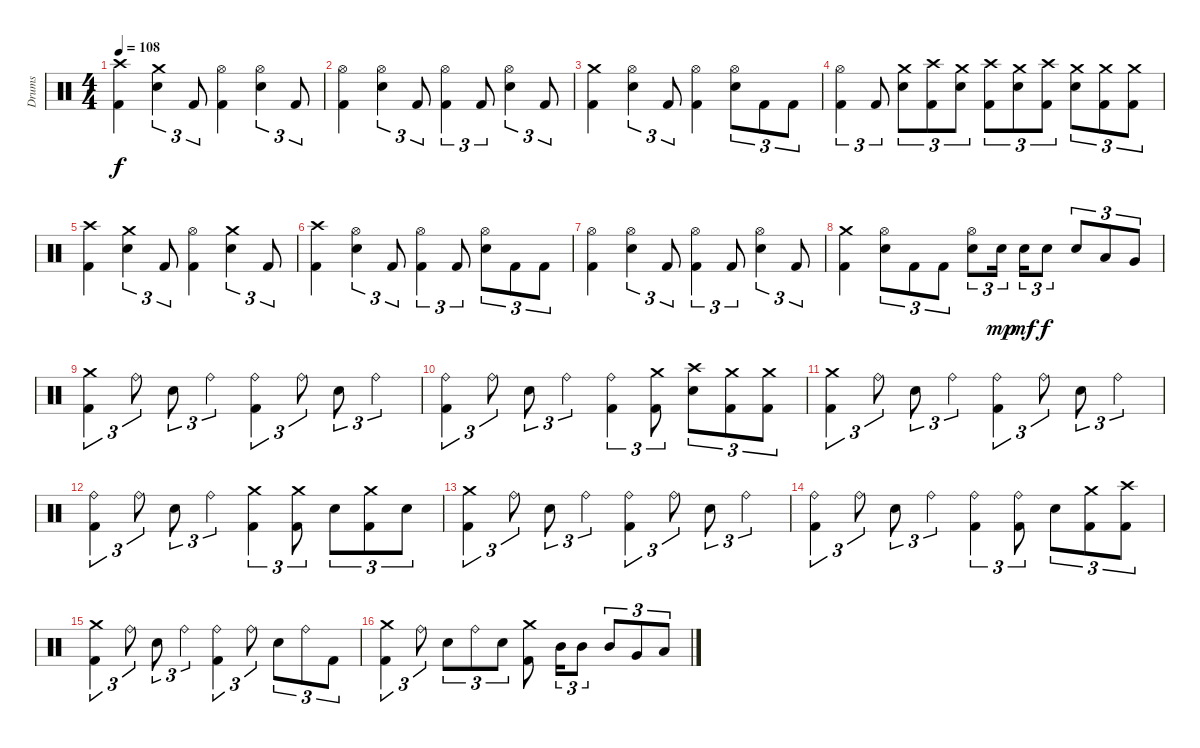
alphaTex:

\track ("Drums" "Drums") {instrument percussion}
\staff {score}
\articulation defaults
\ts (4 4)
\tempo 108
\clef neutral
\ks c
("Crash high (hit)" "Kick (hit) 2").4{dy f} ("Crash medium (hit)" "Electric Snare (hit)").4{tu (3 2)} "Kick (hit) 2".8{tu (3 2)} ("Hi-Hat (open)" "Kick (hit) 2").4 ("Hi-Hat (open)" "Electric Snare (hit)").4{tu (3 2)} "Kick (hit) 2".8{tu (3 2)} |
("Hi-Hat (open)" "Kick (hit) 2").4 ("Hi-Hat (open)" "Electric Snare (hit)").4{tu (3 2)} "Kick (hit) 2".8{tu (3 2)} ("Hi-Hat (open)" "Kick (hit) 2").4{tu (3 2)} "Kick (hit) 2".8{tu (3 2)} ("Hi-Hat (open)" "Electric Snare (hit)").4{tu (3 2)} "Kick (hit) 2".8{tu (3 2)} |
("Crash medium (hit)" "Kick (hit) 2").4 ("Hi-Hat (open)" "Electric Snare (hit)").4{tu (3 2)} "Kick (hit) 2".8{tu (3 2)} ("Hi-Hat (open)" "Kick (hit) 2").4 ("Hi-Hat (open)" "Electric Snare (hit)").8{tu (3 2)} "Kick (hit) 2".8{tu (3 2)} "Kick (hit) 2".8{tu (3 2)} |
("Hi-Hat (open)" "Kick (hit) 2").4{tu (3 2)} "Kick (hit) 2".8{tu (3 2)} ("Crash medium (hit)" "Electric Snare (hit)").8{tu (3 2)} ("Crash high (hit)" "Kick (hit) 2").8{tu (3 2)} ("Crash medium (hit)" "Electric Snare (hit)").8{tu (3 2)} ("Crash high (hit)" "Kick (hit) 2").8{tu (3 2)} ("Crash medium (hit)" "Electric Snare (hit)").8{tu (3 2)} ("Crash high (hit)" "Kick (hit) 2").8{tu (3 2)} ("Crash medium (hit)" "Electric Snare (hit)").8{tu (3 2)} ("Crash medium (hit)" "Kick (hit) 2").8{tu (3 2)} ("Crash medium (hit)" "Kick (hit) 2").8{tu (3 2)} |
("Crash high (hit)" "Kick (hit) 2").4 ("Crash medium (hit)" "Electric Snare (hit)").4{tu (3 2)} "Kick (hit) 2".8{tu (3 2)} ("Hi-Hat (open)" "Kick (hit) 2").4 ("Crash medium (hit)" "Electric Snare (hit)").4{tu (3 2)} "Kick (hit) 2".8{tu (3 2)} |
("Crash high (hit)" "Kick (hit) 2").4 ("Hi-Hat (open)" "Electric Snare (hit)").4{tu (3 2)} "Kick (hit) 2".8{tu (3 2)} ("Hi-Hat (open)" "Kick (hit) 2").4{tu (3 2)} "Kick (hit) 2".8{tu (3 2)} ("Hi-Hat (open)" "Electric Snare (hit)").8{tu (3 2)} "Kick (hit) 2".8{tu (3 2)} "Kick (hit) 2".8{tu (3 2)} |
("Hi-Hat (open)" "Kick (hit) 2").4 ("Hi-Hat (open)" "Electric Snare (hit)").4{tu (3 2)} "Kick (hit) 2".8{tu (3 2)} ("Hi-Hat (open)" "Kick (hit) 2").4{tu (3 2)} "Kick (hit) 2".8{tu (3 2)} ("Hi-Hat (open)" "Electric Snare (hit)").4{tu (3 2)} "Kick (hit) 2".8{tu (3 2)} |
("Crash medium (hit)" "Kick (hit) 2").4 ("Hi-Hat (open)" "Electric Snare (hit)").8{tu (3 2)} "Kick (hit) 2".8{tu (3 2)} "Kick (hit) 2".8{tu (3 2)} ("Hi-Hat (open)" "Electric Snare (hit)").8{tu (3 2)} "Electric Snare (hit)".16{tu (3 2) dy mp beam splitsecondary} "Electric Snare (hit)".16{tu (3 2) dy mf} "Electric Snare (hit)".8{tu (3 2) dy f} "Electric Snare (hit)".8{tu (3 2)} "Low Tom (hit)".8{tu (3 2)} "Very Low Tom (hit)".8{tu (3 2)} |
("Crash medium (hit)" "Kick (hit) 2").4{tu (3 2)} "Ride (bell)".8{tu (3 2)} "Electric Snare (hit)".8{tu (3 2)} "Ride (bell)".4{tu (3 2)} ("Ride (bell)" "Kick (hit) 2").4{tu (3 2)} "Ride (bell)".8{tu (3 2)} "Electric Snare (hit)".8{tu (3 2)} "Ride (bell)".4{tu (3 2)} |
("Ride (bell)" "Kick (hit) 2").4{tu (3 2)} "Ride (bell)".8{tu (3 2)} "Electric Snare (hit)".8{tu (3 2)} "Ride (bell)".4{tu (3 2)} ("Ride (bell)" "Kick (hit) 2").4{tu (3 2)} ("Crash medium (hit)" "Kick (hit) 2").8{tu (3 2)} ("Crash high (hit)" "Electric Snare (hit)").8{tu (3 2)} ("Crash medium (hit)" "Kick (hit) 2").8{tu (3 2)} ("Crash medium (hit)" "Kick (hit) 2").8{tu (3 2)} |
("Crash medium (hit)" "Kick (hit) 2").4{tu (3 2)} "Ride (bell)".8{tu (3 2)} "Electric Snare (hit)".8{tu (3 2)} "Ride (bell)".4{tu (3 2)} ("Ride (bell)" "Kick (hit) 2").4{tu (3 2)} "Ride (bell)".8{tu (3 2)} "Electric Snare (hit)".8{tu (3 2)} "Ride (bell)".4{tu (3 2)} |
("Ride (bell)" "Kick (hit) 2").4{tu (3 2)} "Ride (bell)".8{tu (3 2)} "Electric Snare (hit)".8{tu (3 2)} "Ride (bell)".4{tu (3 2)} ("Crash medium (hit)" "Kick (hit) 2").4{tu (3 2)} ("Crash medium (hit)" "Kick (hit) 2").8{tu (3 2)} "Electric Snare (hit)".8{tu (3 2)} ("Crash medium (hit)" "Kick (hit) 2").8{tu (3 2)} "Electric Snare (hit)".8{tu (3 2)} |
("Crash medium (hit)" "Kick (hit) 2").4{tu (3 2)} "Ride (bell)".8{tu (3 2)} "Electric Snare (hit)".8{tu (3 2)} "Ride (bell)".4{tu (3 2)} ("Ride (bell)" "Kick (hit) 2").4{tu (3 2)} "Ride (bell)".8{tu (3 2)} "Electric Snare (hit)".8{tu (3 2)} "Ride (bell)".4{tu (3 2)} |
("Ride (bell)" "Kick (hit) 2").4{tu (3 2)} "Ride (bell)".8{tu (3 2)} "Electric Snare (hit)".8{tu (3 2)} "Ride (bell)".4{tu (3 2)} ("Ride (bell)" "Kick (hit) 2").4{tu (3 2)} ("Ride (bell)" "Kick (hit) 2").8{tu (3 2)} "Electric Snare (hit)".8{tu (3 2)} ("Crash medium (hit)" "Kick (hit) 2").8{tu (3 2)} ("Crash high (hit)" "Kick (hit) 2").8{tu (3 2)} |
("Crash medium (hit)" "Kick (hit) 2").4{tu (3 2)} "Ride (bell)".8{tu (3 2)} "Electric Snare (hit)".8{tu (3 2)} "Ride (bell)".4{tu (3 2)} ("Ride (bell)" "Kick (hit) 2").4{tu (3 2)} "Ride (bell)".8{tu (3 2)} "Electric Snare (hit)".8{tu (3 2)} "Ride (bell)".8{tu (3 2)} "Kick (hit) 2".8{tu (3 2)} |
("Crash medium (hit)" "Kick (hit) 2").4{tu (3 2)} "Ride (bell)".8{tu (3 2)} "Electric Snare (hit)".8{tu (3 2)} "Ride (bell)".8{tu (3 2)} "Electric Snare (hit)".8{tu (3 2)} ("Crash medium (hit)" "Kick (hit) 2").8 "Mid Tom (hit)".16{tu (3 2)} "Mid Tom (hit)".8{tu (3 2)} "Mid Tom (hit)".8{tu (3 2)} "Very Low Tom (hit)".8{tu (3 2)} "Low Floor Tom (hit)".8{tu (3 2)}
